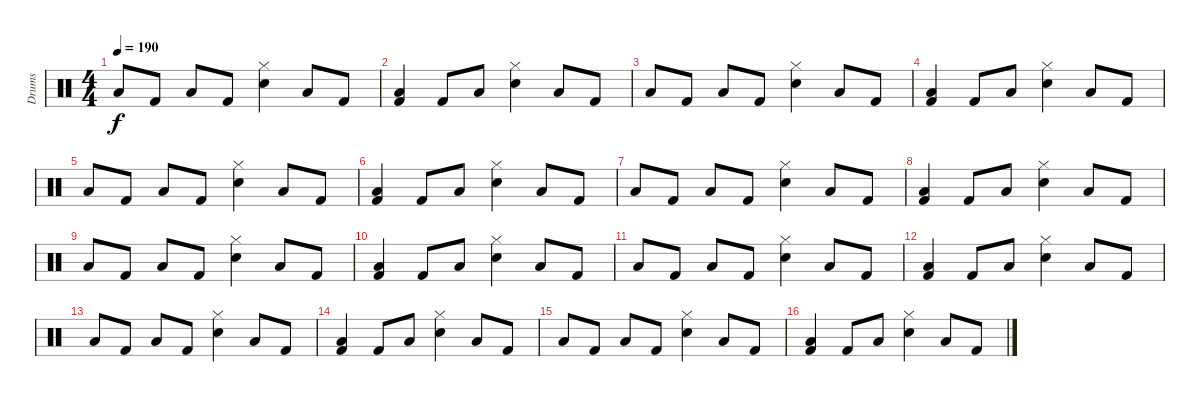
\track ("Drums" "Drums") {instrument percussion}
\staff {score}
\articulation defaults
\ts (4 4)
\tempo 190
\clef neutral
\ks c "Low Floor Tom (hit)".8{dy f} "Kick (hit) 2".8 "Low Floor Tom (hit)".8 "Kick (hit) 2".8
("Snare (hit) 2" "Hi-Hat (closed)").4 "Low Floor Tom (hit)".8 "Kick (hit) 2".8 |
("Kick (hit) 2" "Low Floor Tom (hit)").4 "Kick (hit) 2".8 "Low Floor Tom (hit)".8 ("Snare (hit) 2" "Hi-Hat (closed)").4 "Low Floor Tom (hit)".8 "Kick (hit) 2".8 |
"Low Floor Tom (hit)".8 "Kick (hit) 2".8 "Low Floor Tom (hit)".8 "Kick (hit) 2".8 ("Snare (hit) 2" "Hi-Hat (closed)").4 "Low Floor Tom (hit)".8 "Kick (hit) 2".8 |
("Kick (hit) 2" "Low Floor Tom (hit)").4 "Kick (hit) 2".8 "Low Floor Tom (hit)".8 ("Snare (hit) 2" "Hi-Hat (closed)").4 "Low Floor Tom (hit)".8 "Kick (hit) 2".8 |
"Low Floor Tom (hit)".8 "Kick (hit) 2".8 "Low Floor Tom (hit)".8 "Kick (hit) 2".8 ("Snare (hit) 2" "Hi-Hat (closed)").4 "Low Floor Tom (hit)".8 "Kick (hit) 2".8 |
("Kick (hit) 2" "Low Floor Tom (hit)").4 "Kick (hit) 2".8 "Low Floor Tom (hit)".8 ("Snare (hit) 2" "Hi-Hat (closed)").4 "Low Floor Tom (hit)".8 "Kick (hit) 2".8 |
"Low Floor Tom (hit)".8 "Kick (hit) 2".8 "Low Floor Tom (hit)".8 "Kick (hit) 2".8 ("Snare (hit) 2" "Hi-Hat (closed)").4 "Low Floor Tom (hit)".8 "Kick (hit) 2".8 |
("Kick (hit) 2" "Low Floor Tom (hit)").4 "Kick (hit) 2".8 "Low Floor Tom (hit)".8 ("Snare (hit) 2" "Hi-Hat (closed)").4 "Low Floor Tom (hit)".8 "Kick (hit) 2".8 |
"Low Floor Tom (hit)".8 "Kick (hit) 2".8 "Low Floor Tom (hit)".8 "Kick (hit) 2".8 ("Snare (hit) 2" "Hi-Hat (closed)").4 "Low Floor Tom (hit)".8 "Kick (hit) 2".8 |
("Kick (hit) 2" "Low Floor Tom (hit)").4 "Kick (hit) 2".8 "Low Floor Tom (hit)".8 ("Snare (hit) 2" "Hi-Hat (closed)").4 "Low Floor Tom (hit)".8 "Kick (hit) 2".8 |
"Low Floor Tom (hit)".8 "Kick (hit) 2".8 "Low Floor Tom (hit)".8 "Kick (hit) 2".8 ("Snare (hit) 2" "Hi-Hat (closed)").4 "Low Floor Tom (hit)".8 "Kick (hit) 2".8 |
("Kick (hit) 2" "Low Floor Tom (hit)").4 "Kick (hit) 2".8 "Low Floor Tom (hit)".8 ("Snare (hit) 2" "Hi-Hat (closed)").4 "Low Floor Tom (hit)".8 "Kick (hit) 2".8 |
"Low Floor Tom (hit)".8 "Kick (hit) 2".8 "Low Floor Tom (hit)".8 "Kick (hit) 2".8 ("Snare (hit) 2" "Hi-Hat (closed)").4 "Low Floor Tom (hit)".8 "Kick (hit) 2".8 |
("Kick (hit) 2" "Low Floor Tom (hit)").4 "Kick (hit) 2".8 "Low Floor Tom (hit)".8 ("Snare (hit) 2" "Hi-Hat (closed)").4 "Low Floor Tom (hit)".8 "Kick (hit) 2".8 |
"Low Floor Tom (hit)".8 "Kick (hit) 2".8 "Low Floor Tom (hit)".8 "Kick (hit) 2".8 ("Snare (hit) 2" "Hi-Hat (closed)").4 "Low Floor Tom (hit)".8 "Kick (hit) 2".8 |
("Kick (hit) 2" "Low Floor Tom (hit)").4 "Kick (hit) 2".8 "Low Floor Tom (hit)".8 ("Snare (hit) 2" "Hi-Hat (closed)").4 "Low Floor Tom (hit)".8 "Kick (hit) 2".8
